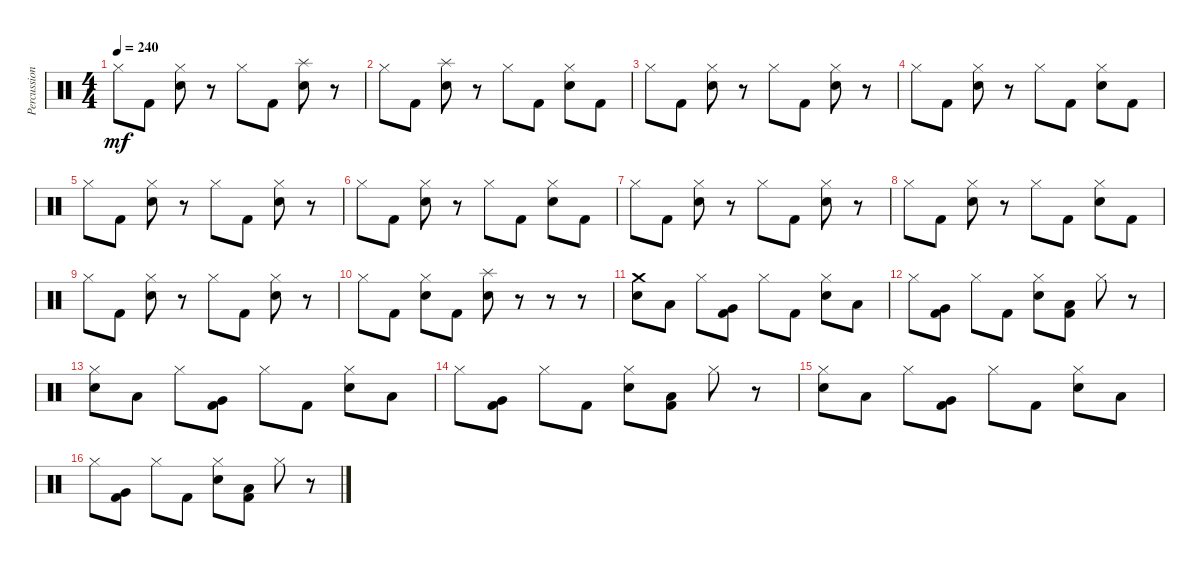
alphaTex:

\track ("Percussion" "Percussion") {instrument percussion}
\staff {score}
\articulation defaults
\ts (4 4)
\tempo 240
\clef neutral
\ks c "Hi-Hat (closed)".8{dy mf} "Kick (hit) 2".8
("Electric Snare (hit)" "Hi-Hat (closed)").8 r.8 "Hi-Hat (closed)".8 "Kick (hit) 2".8 ("Splash (hit)" "Electric Snare (hit)").8 r.8 |
"Hi-Hat (closed)".8 "Kick (hit) 2".8 ("Electric Snare (hit)" "Splash (hit)").8 r.8 "Hi-Hat (closed)".8 "Kick (hit) 2".8 ("Electric Snare (hit)" "Hi-Hat (closed)").8 "Kick (hit) 2".8 |
"Hi-Hat (closed)".8 "Kick (hit) 2".8 ("Electric Snare (hit)" "Hi-Hat (closed)").8 r.8 "Hi-Hat (closed)".8 "Kick (hit) 2".8 ("Hi-Hat (closed)" "Electric Snare (hit)").8 r.8 |
"Hi-Hat (closed)".8 "Kick (hit) 2".8 ("Electric Snare (hit)" "Hi-Hat (closed)").8 r.8 "Hi-Hat (closed)".8 "Kick (hit) 2".8 ("Electric Snare (hit)" "Hi-Hat (closed)").8 "Kick (hit) 2".8 |
"Hi-Hat (closed)".8 "Kick (hit) 2".8 ("Electric Snare (hit)" "Hi-Hat (closed)").8 r.8 "Hi-Hat (closed)".8 "Kick (hit) 2".8 ("Hi-Hat (closed)" "Electric Snare (hit)").8 r.8 |
"Hi-Hat (closed)".8 "Kick (hit) 2".8 ("Electric Snare (hit)" "Hi-Hat (closed)").8 r.8 "Hi-Hat (closed)".8 "Kick (hit) 2".8 ("Electric Snare (hit)" "Hi-Hat (closed)").8 "Kick (hit) 2".8 |
"Hi-Hat (closed)".8 "Kick (hit) 2".8 ("Electric Snare (hit)" "Hi-Hat (closed)").8 r.8 "Hi-Hat (closed)".8 "Kick (hit) 2".8 ("Hi-Hat (closed)" "Electric Snare (hit)").8 r.8 |
"Hi-Hat (closed)".8 "Kick (hit) 2".8 ("Electric Snare (hit)" "Hi-Hat (closed)").8 r.8 "Hi-Hat (closed)".8 "Kick (hit) 2".8 ("Electric Snare (hit)" "Hi-Hat (closed)").8 "Kick (hit) 2".8 |
"Hi-Hat (closed)".8 "Kick (hit) 2".8 ("Electric Snare (hit)" "Hi-Hat (closed)").8 r.8 "Hi-Hat (closed)".8 "Kick (hit) 2".8 ("Hi-Hat (closed)" "Electric Snare (hit)").8 r.8 |
"Hi-Hat (closed)".8 "Kick (hit) 2".8 ("Electric Snare (hit)" "Hi-Hat (closed)").8 "Kick (hit) 2".8 ("Electric Snare (hit)" "Splash (hit)").8 r.8 r.8 r.8 |
("Electric Snare (hit)" "Crash medium (hit)").8 "Low Tom (hit)".8 "Hi-Hat (closed)".8 ("Very Low Tom (hit)" "Kick (hit) 2").8 "Hi-Hat (closed)".8 "Kick (hit) 2".8 ("Electric Snare (hit)" "Hi-Hat (closed)").8 "Low Tom (hit)".8 |
"Hi-Hat (closed)".8 ("Kick (hit) 2" "Very Low Tom (hit)").8 "Hi-Hat (closed)".8 "Kick (hit) 2".8 ("Electric Snare (hit)" "Hi-Hat (closed)").8 ("Low Tom (hit)" "Kick (hit) 2").8 "Hi-Hat (closed)".8 r.8 |
("Electric Snare (hit)" "Hi-Hat (closed)").8 "Low Tom (hit)".8 "Hi-Hat (closed)".8 ("Very Low Tom (hit)" "Kick (hit) 2").8 "Hi-Hat (closed)".8 "Kick (hit) 2".8 ("Electric Snare (hit)" "Hi-Hat (closed)").8 "Low Tom (hit)".8 |
"Hi-Hat (closed)".8 ("Kick (hit) 2" "Very Low Tom (hit)").8 "Hi-Hat (closed)".8 "Kick (hit) 2".8 ("Electric Snare (hit)" "Hi-Hat (closed)").8 ("Low Tom (hit)" "Kick (hit) 2").8 "Hi-Hat (closed)".8 r.8 |
("Electric Snare (hit)" "Hi-Hat (closed)").8 "Low Tom (hit)".8 "Hi-Hat (closed)".8 ("Very Low Tom (hit)" "Kick (hit) 2").8 "Hi-Hat (closed)".8 "Kick (hit) 2".8 ("Electric Snare (hit)" "Hi-Hat (closed)").8 "Low Tom (hit)".8 |
"Hi-Hat (closed)".8 ("Kick (hit) 2" "Very Low Tom (hit)").8 "Hi-Hat (closed)".8 "Kick (hit) 2".8 ("Electric Snare (hit)" "Hi-Hat (closed)").8 ("Low Tom (hit)" "Kick (hit) 2").8 "Hi-Hat (closed)".8 r.8
